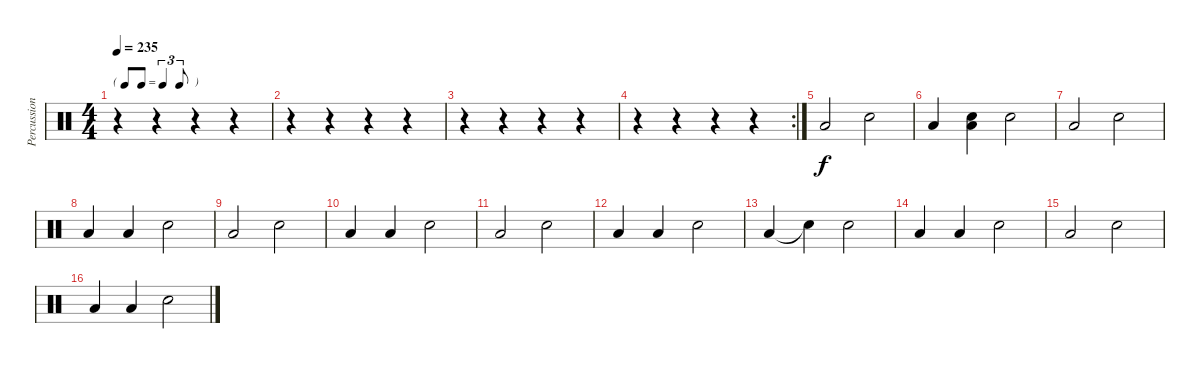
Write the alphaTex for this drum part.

\track ("Percussions" "Percussion") {instrument percussion}
\staff {score}
\articulation defaults
\ts (4 4)
\tf triplet8th
\tempo 235
\clef neutral
\ks c
r.4{dy f} r.4 r.4 r.4 |
r.4 r.4 r.4 r.4 |
r.4 r.4 r.4 r.4 |
\rc 2
r.4 r.4 r.4 r.4 |
"Low Tom (hit)".2 "Snare (hit) 2".2 |
"Low Tom (hit)".4 ("Snare (hit)" "Low Tom (hit)").4 "Snare (hit) 2".2 |
"Low Tom (hit)".2 "Snare (hit) 2".2 |
"Low Tom (hit)".4 "Low Tom (hit)".4 "Snare (hit) 2".2 |
"Low Tom (hit)".2 "Snare (hit) 2".2 |
"Low Tom (hit)".4 "Low Tom (hit)".4 "Snare (hit) 2".2 |
"Low Tom (hit)".2 "Snare (hit) 2".2 |
"Low Tom (hit)".4 "Low Tom (hit)".4 "Snare (hit) 2".2 |
"Low Tom (hit)".4 "Snare (hit)"{t}.4 "Snare (hit) 2".2 |
"Low Tom (hit)".4 "Low Tom (hit)".4 "Snare (hit) 2".2 |
"Low Tom (hit)".2 "Snare (hit) 2".2 |
"Low Tom (hit)".4 "Low Tom (hit)".4 "Snare (hit) 2".2
